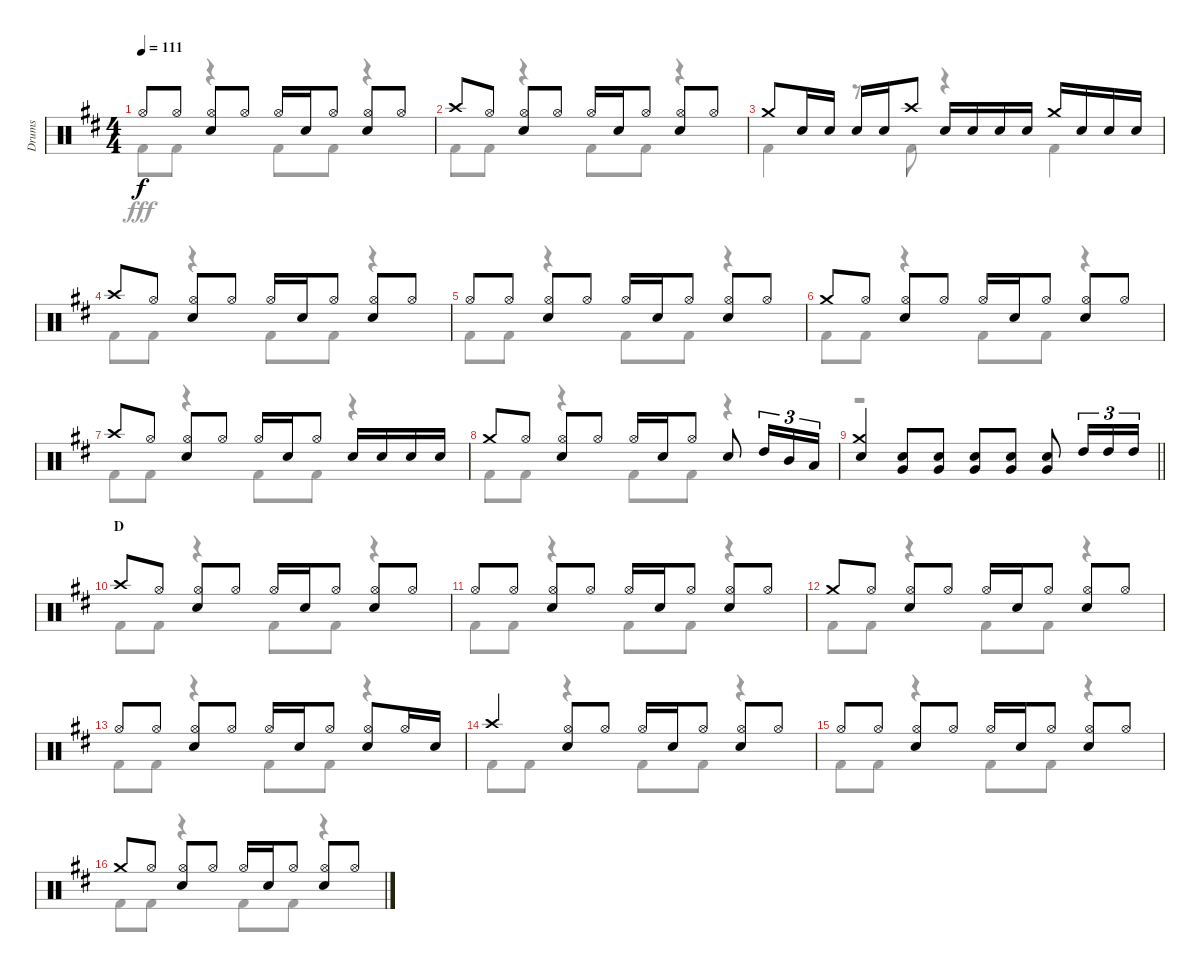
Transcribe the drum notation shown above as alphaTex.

\track ("Drums" "Drums") {instrument percussion}
\staff {score}
\articulation defaults
\voice
\ts (4 4)
\tempo 111
\clef neutral
\ks d "Hi-Hat (open)".8{dy f} "Hi-Hat (open)".8
("Hi-Hat (open)" "Snare (hit) 2").8 "Hi-Hat (open)".8 "Hi-Hat (open)".16 "Snare (hit) 2".16 "Hi-Hat (open)".8 ("Hi-Hat (open)" "Snare (hit) 2").8 "Hi-Hat (open)".8 |
"Crash high (hit)".8 "Hi-Hat (open)".8 ("Hi-Hat (open)" "Snare (hit) 2").8 "Hi-Hat (open)".8 "Hi-Hat (open)".16 "Snare (hit) 2".16 "Hi-Hat (open)".8 ("Hi-Hat (open)" "Snare (hit) 2").8 "Hi-Hat (open)".8 |
"Crash medium (hit)".8 "Snare (hit) 2".16 "Snare (hit) 2".16 "Snare (hit) 2".16 "Snare (hit) 2".16 "Crash high (hit)".8 "Snare (hit) 2".16 "Snare (hit) 2".16 "Snare (hit) 2".16 "Snare (hit) 2".16 "Crash medium (hit)".16 "Snare (hit) 2".16 "Snare (hit) 2".16 "Snare (hit) 2".16 |
"Crash high (hit)".8 "Hi-Hat (open)".8 ("Hi-Hat (open)" "Snare (hit) 2").8 "Hi-Hat (open)".8 "Hi-Hat (open)".16 "Snare (hit) 2".16 "Hi-Hat (open)".8 ("Hi-Hat (open)" "Snare (hit) 2").8 "Hi-Hat (open)".8 |
"Hi-Hat (open)".8 "Hi-Hat (open)".8 ("Hi-Hat (open)" "Snare (hit) 2").8 "Hi-Hat (open)".8 "Hi-Hat (open)".16 "Snare (hit) 2".16 "Hi-Hat (open)".8 ("Hi-Hat (open)" "Snare (hit) 2").8 "Hi-Hat (open)".8 |
"Crash medium (hit)".8 "Hi-Hat (open)".8 ("Hi-Hat (open)" "Snare (hit) 2").8 "Hi-Hat (open)".8 "Hi-Hat (open)".16 "Snare (hit) 2".16 "Hi-Hat (open)".8 ("Hi-Hat (open)" "Snare (hit) 2").8 "Hi-Hat (open)".8 |
"Crash high (hit)".8 "Hi-Hat (open)".8 ("Hi-Hat (open)" "Snare (hit) 2").8 "Hi-Hat (open)".8 "Hi-Hat (open)".16 "Snare (hit) 2".16 "Hi-Hat (open)".8 "Snare (hit) 2".16 "Snare (hit) 2".16 "Snare (hit) 2".16 "Snare (hit) 2".16 |
"Crash medium (hit)".8 "Hi-Hat (open)".8 ("Hi-Hat (open)" "Snare (hit) 2").8 "Hi-Hat (open)".8 "Hi-Hat (open)".16 "Snare (hit) 2".16 "Hi-Hat (open)".8 "Snare (hit) 2".8 "High Tom (hit)".16{tu (3 2)} "Mid Tom (hit)".16{tu (3 2)} "Low Tom (hit)".16{tu (3 2)} |
\barLineRight lightlight
("Crash medium (hit)" "Snare (hit) 2").4 ("Snare (hit) 2" "Very Low Tom (hit)").8 ("Snare (hit) 2" "Very Low Tom (hit)").8 ("Snare (hit) 2" "Very Low Tom (hit)").8 ("Snare (hit) 2" "Very Low Tom (hit)").8 ("Snare (hit) 2" "Very Low Tom (hit)").8 "High Tom (hit)".16{tu (3 2)} "High Tom (hit)".16{tu (3 2)} "High Tom (hit)".16{tu (3 2)} |
\section ("" "D")
"Crash high (hit)".8 "Hi-Hat (open)".8 ("Hi-Hat (open)" "Snare (hit) 2").8 "Hi-Hat (open)".8 "Hi-Hat (open)".16 "Snare (hit) 2".16 "Hi-Hat (open)".8 ("Hi-Hat (open)" "Snare (hit) 2").8 "Hi-Hat (open)".8 |
"Hi-Hat (open)".8 "Hi-Hat (open)".8 ("Hi-Hat (open)" "Snare (hit) 2").8 "Hi-Hat (open)".8 "Hi-Hat (open)".16 "Snare (hit) 2".16 "Hi-Hat (open)".8 ("Hi-Hat (open)" "Snare (hit) 2").8 "Hi-Hat (open)".8 |
"Crash medium (hit)".8 "Hi-Hat (open)".8 ("Hi-Hat (open)" "Snare (hit) 2").8 "Hi-Hat (open)".8 "Hi-Hat (open)".16 "Snare (hit) 2".16 "Hi-Hat (open)".8 ("Hi-Hat (open)" "Snare (hit) 2").8 "Hi-Hat (open)".8 |
"Hi-Hat (open)".8 "Hi-Hat (open)".8 ("Hi-Hat (open)" "Snare (hit) 2").8 "Hi-Hat (open)".8 "Hi-Hat (open)".16 "Snare (hit) 2".16 "Hi-Hat (open)".8 ("Hi-Hat (open)" "Snare (hit) 2").8 "Hi-Hat (open)".16 "Snare (hit) 2".16 |
"Crash high (hit)".4 ("Hi-Hat (open)" "Snare (hit) 2").8 "Hi-Hat (open)".8 "Hi-Hat (open)".16 "Snare (hit) 2".16 "Hi-Hat (open)".8 ("Hi-Hat (open)" "Snare (hit) 2").8 "Hi-Hat (open)".8 |
"Hi-Hat (open)".8 "Hi-Hat (open)".8 ("Hi-Hat (open)" "Snare (hit) 2").8 "Hi-Hat (open)".8 "Hi-Hat (open)".16 "Snare (hit) 2".16 "Hi-Hat (open)".8 ("Hi-Hat (open)" "Snare (hit) 2").8 "Hi-Hat (open)".8 |
"Crash medium (hit)".8 "Hi-Hat (open)".8 ("Hi-Hat (open)" "Snare (hit) 2").8 "Hi-Hat (open)".8 "Hi-Hat (open)".16 "Snare (hit) 2".16 "Hi-Hat (open)".8 ("Hi-Hat (open)" "Snare (hit) 2").8 "Hi-Hat (open)".8
\voice
\clef neutral
\ottava regular
\simile none
\ks d "Kick (hit) 2".8{dy fff} "Kick (hit) 2".8
r.4 "Kick (hit) 2".8 "Kick (hit) 2".8 r.4 |
"Kick (hit) 2".8 "Kick (hit) 2".8 r.4 "Kick (hit) 2".8 "Kick (hit) 2".8 r.4 |
"Kick (hit) 2".4 r.8 "Kick (hit) 2".8 r.4 "Kick (hit) 2".4 |
"Kick (hit) 2".8 "Kick (hit) 2".8 r.4 "Kick (hit) 2".8 "Kick (hit) 2".8 r.4 |
"Kick (hit) 2".8 "Kick (hit) 2".8 r.4 "Kick (hit) 2".8 "Kick (hit) 2".8 r.4 |
"Kick (hit) 2".8 "Kick (hit) 2".8 r.4 "Kick (hit) 2".8 "Kick (hit) 2".8 r.4 |
"Kick (hit) 2".8 "Kick (hit) 2".8 r.4 "Kick (hit) 2".8 "Kick (hit) 2".8 r.4 |
"Kick (hit) 2".8 "Kick (hit) 2".8 r.4 "Kick (hit) 2".8 "Kick (hit) 2".8 r.4 |
\barLineRight lightlight
r.1 |
"Kick (hit) 2".8 "Kick (hit) 2".8 r.4 "Kick (hit) 2".8 "Kick (hit) 2".8 r.4 |
"Kick (hit) 2".8 "Kick (hit) 2".8 r.4 "Kick (hit) 2".8 "Kick (hit) 2".8 r.4 |
"Kick (hit) 2".8 "Kick (hit) 2".8 r.4 "Kick (hit) 2".8 "Kick (hit) 2".8 r.4 |
"Kick (hit) 2".8 "Kick (hit) 2".8 r.4 "Kick (hit) 2".8 "Kick (hit) 2".8 r.4 |
"Kick (hit) 2".8 "Kick (hit) 2".8 r.4 "Kick (hit) 2".8 "Kick (hit) 2".8 r.4 |
"Kick (hit) 2".8 "Kick (hit) 2".8 r.4 "Kick (hit) 2".8 "Kick (hit) 2".8 r.4 |
"Kick (hit) 2".8 "Kick (hit) 2".8 r.4 "Kick (hit) 2".8 "Kick (hit) 2".8 r.4
